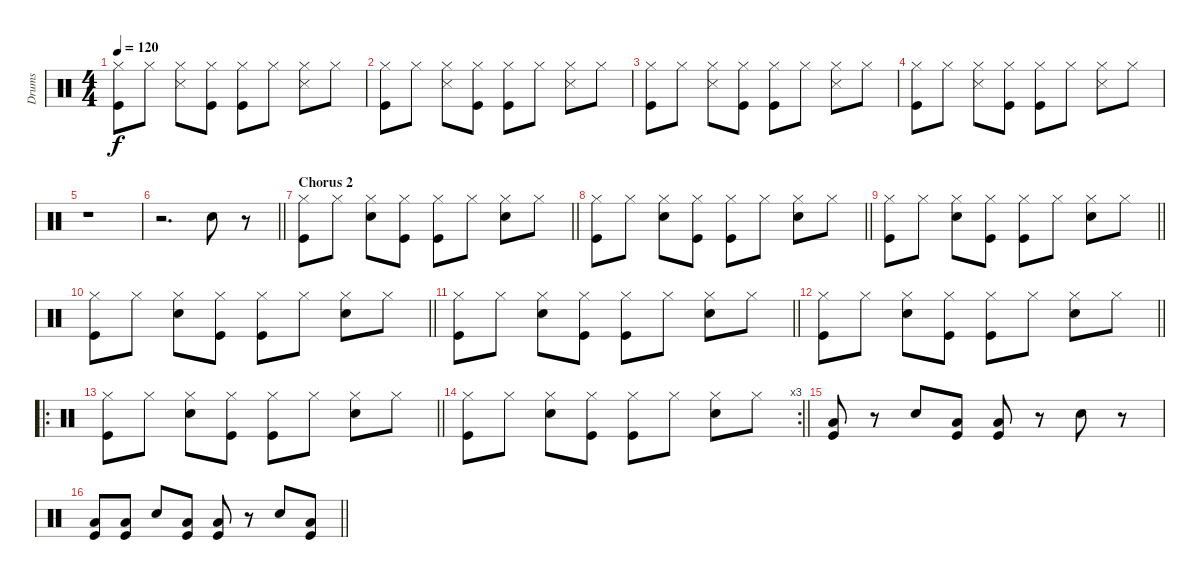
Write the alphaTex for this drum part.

\track ("Drums" "Drums") {instrument percussion}
\staff
\articulation defaults
\ts (4 4)
\tempo 120
\clef neutral
\ks c
("Hi-Hat (closed)" "Kick (hit)").8{dy f} "Hi-Hat (closed)".8 ("Hi-Hat (closed)" "Snare (side stick) 3").8 ("Hi-Hat (closed)" "Kick (hit)").8 ("Hi-Hat (closed)" "Kick (hit)").8 "Hi-Hat (closed)".8 ("Hi-Hat (closed)" "Snare (side stick) 3").8 "Hi-Hat (closed)".8 |
("Hi-Hat (closed)" "Kick (hit)").8 "Hi-Hat (closed)".8 ("Hi-Hat (closed)" "Snare (side stick) 3").8 ("Hi-Hat (closed)" "Kick (hit)").8 ("Hi-Hat (closed)" "Kick (hit)").8 "Hi-Hat (closed)".8 ("Hi-Hat (closed)" "Snare (side stick) 3").8 "Hi-Hat (closed)".8 |
("Hi-Hat (closed)" "Kick (hit)").8 "Hi-Hat (closed)".8 ("Hi-Hat (closed)" "Snare (side stick) 3").8 ("Hi-Hat (closed)" "Kick (hit)").8 ("Hi-Hat (closed)" "Kick (hit)").8 "Hi-Hat (closed)".8 ("Hi-Hat (closed)" "Snare (side stick) 3").8 "Hi-Hat (closed)".8 |
("Hi-Hat (closed)" "Kick (hit)").8 "Hi-Hat (closed)".8 ("Hi-Hat (closed)" "Snare (side stick) 3").8 ("Hi-Hat (closed)" "Kick (hit)").8 ("Hi-Hat (closed)" "Kick (hit)").8 "Hi-Hat (closed)".8 ("Hi-Hat (closed)" "Snare (side stick) 3").8 "Hi-Hat (closed)".8 |
r.1 |
\barLineRight lightlight
r.2{d} "Electric Snare (hit)".8 r.8 |
\section ("" "Chorus 2")
\barLineRight lightlight
("Hi-Hat (closed)" "Kick (hit)").8 "Hi-Hat (closed)".8 ("Hi-Hat (closed)" "Snare (hit) 2").8 ("Hi-Hat (closed)" "Kick (hit)").8 ("Hi-Hat (closed)" "Kick (hit)").8 "Hi-Hat (closed)".8 ("Hi-Hat (closed)" "Snare (hit) 2").8 "Hi-Hat (closed)".8 |
\barLineRight lightlight
("Hi-Hat (closed)" "Kick (hit)").8 "Hi-Hat (closed)".8 ("Hi-Hat (closed)" "Snare (hit) 2").8 ("Hi-Hat (closed)" "Kick (hit)").8 ("Hi-Hat (closed)" "Kick (hit)").8 "Hi-Hat (closed)".8 ("Hi-Hat (closed)" "Snare (hit) 2").8 "Hi-Hat (closed)".8 |
\barLineRight lightlight
("Hi-Hat (closed)" "Kick (hit)").8 "Hi-Hat (closed)".8 ("Hi-Hat (closed)" "Snare (hit) 2").8 ("Hi-Hat (closed)" "Kick (hit)").8 ("Hi-Hat (closed)" "Kick (hit)").8 "Hi-Hat (closed)".8 ("Hi-Hat (closed)" "Snare (hit) 2").8 "Hi-Hat (closed)".8 |
\barLineRight lightlight
("Hi-Hat (closed)" "Kick (hit)").8 "Hi-Hat (closed)".8 ("Hi-Hat (closed)" "Snare (hit) 2").8 ("Hi-Hat (closed)" "Kick (hit)").8 ("Hi-Hat (closed)" "Kick (hit)").8 "Hi-Hat (closed)".8 ("Hi-Hat (closed)" "Snare (hit) 2").8 "Hi-Hat (closed)".8 |
\barLineRight lightlight
("Hi-Hat (closed)" "Kick (hit)").8 "Hi-Hat (closed)".8 ("Hi-Hat (closed)" "Snare (hit) 2").8 ("Hi-Hat (closed)" "Kick (hit)").8 ("Hi-Hat (closed)" "Kick (hit)").8 "Hi-Hat (closed)".8 ("Hi-Hat (closed)" "Snare (hit) 2").8 "Hi-Hat (closed)".8 |
\barLineRight lightlight
("Hi-Hat (closed)" "Kick (hit)").8 "Hi-Hat (closed)".8 ("Hi-Hat (closed)" "Snare (hit) 2").8 ("Hi-Hat (closed)" "Kick (hit)").8 ("Hi-Hat (closed)" "Kick (hit)").8 "Hi-Hat (closed)".8 ("Hi-Hat (closed)" "Snare (hit) 2").8 "Hi-Hat (closed)".8 |
\ro
\barLineRight lightlight
("Hi-Hat (closed)" "Kick (hit)").8 "Hi-Hat (closed)".8 ("Hi-Hat (closed)" "Snare (hit) 2").8 ("Hi-Hat (closed)" "Kick (hit)").8 ("Hi-Hat (closed)" "Kick (hit)").8 "Hi-Hat (closed)".8 ("Hi-Hat (closed)" "Snare (hit) 2").8 "Hi-Hat (closed)".8 |
\rc 3
\barLineRight lightlight
("Hi-Hat (closed)" "Kick (hit)").8 "Hi-Hat (closed)".8 ("Hi-Hat (closed)" "Snare (hit) 2").8 ("Hi-Hat (closed)" "Kick (hit)").8 ("Hi-Hat (closed)" "Kick (hit)").8 "Hi-Hat (closed)".8 ("Hi-Hat (closed)" "Snare (hit) 2").8 "Hi-Hat (closed)".8 |
("Kick (hit)" "Low Floor Tom (hit)").8 r.8 "Snare (hit) 2".8 ("Kick (hit)" "Low Floor Tom (hit)").8 ("Kick (hit)" "Low Floor Tom (hit)").8 r.8 "Snare (hit) 2".8 r.8 |
\barLineRight lightlight
("Kick (hit)" "Low Floor Tom (hit)").8 ("Kick (hit)" "Low Floor Tom (hit)").8 "Snare (hit) 2".8 ("Kick (hit)" "Low Floor Tom (hit)").8 ("Kick (hit)" "Low Floor Tom (hit)").8 r.8 "Snare (hit) 2".8 ("Kick (hit)" "Low Floor Tom (hit)").8
